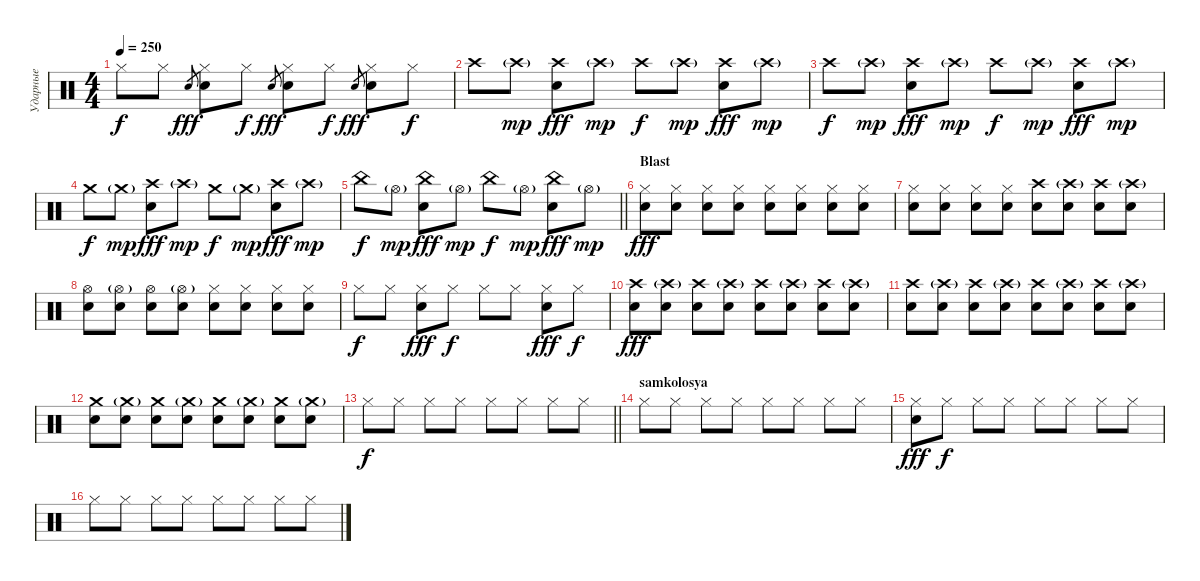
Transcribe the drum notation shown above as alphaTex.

\track ("Ударные" "Ударные") {instrument percussion}
\staff {score}
\articulation defaults
\ts (4 4)
\tempo 250
\clef neutral
\ks c "Hi-Hat (closed)".8{dy f} "Hi-Hat (closed)".8 "Snare (hit) 2".8{gr dy fff}
("Hi-Hat (closed)" "Snare (hit) 2").8 "Hi-Hat (closed)".8{dy f} "Snare (hit) 2".8{gr dy fff} ("Hi-Hat (closed)" "Snare (hit) 2").8 "Hi-Hat (closed)".8{dy f} "Snare (hit) 2".8{gr dy fff} ("Hi-Hat (closed)" "Snare (hit) 2").8 "Hi-Hat (closed)".8{dy f} |
"Crash high (hit)".8 "Crash high (hit)"{g}.8{dy mp} ("Crash high (hit)" "Snare (hit) 2").8{dy fff} "Crash high (hit)"{g}.8{dy mp} "Crash high (hit)".8{dy f} "Crash high (hit)"{g}.8{dy mp} ("Crash high (hit)" "Snare (hit) 2").8{dy fff} "Crash high (hit)"{g}.8{dy mp} |
"Crash high (hit)".8{dy f} "Crash high (hit)"{g}.8{dy mp} ("Crash high (hit)" "Snare (hit) 2").8{dy fff} "Crash high (hit)"{g}.8{dy mp} "Crash high (hit)".8{dy f} "Crash high (hit)"{g}.8{dy mp} ("Crash high (hit)" "Snare (hit) 2").8{dy fff} "Crash high (hit)"{g}.8{dy mp} |
"Crash medium (hit)".8{dy f} "Crash medium (hit)"{g}.8{dy mp} ("Crash high (hit)" "Snare (hit) 2").8{dy fff} "Crash high (hit)"{g}.8{dy mp} "Crash medium (hit)".8{dy f} "Crash medium (hit)"{g}.8{dy mp} ("Crash high (hit)" "Snare (hit) 2").8{dy fff} "Crash high (hit)"{g}.8{dy mp} |
\barLineRight lightlight "China (hit)".8{dy f} "Hi-Hat (open)"{g}.8{dy mp}
("China (hit)" "Snare (hit) 2").8{dy fff} "Hi-Hat (open)"{g}.8{dy mp} "China (hit)".8{dy f} "Hi-Hat (open)"{g}.8{dy mp} ("China (hit)" "Snare (hit) 2").8{dy fff} "Hi-Hat (open)"{g}.8{dy mp} |
\section ("" "Blast")
("Hi-Hat (closed)" "Snare (hit) 2").8{dy fff} ("Hi-Hat (closed)" "Snare (hit) 2").8 ("Hi-Hat (closed)" "Snare (hit) 2").8 ("Hi-Hat (closed)" "Snare (hit) 2").8 ("Hi-Hat (closed)" "Snare (hit) 2").8 ("Hi-Hat (closed)" "Snare (hit) 2").8 ("Hi-Hat (closed)" "Snare (hit) 2").8 ("Hi-Hat (closed)" "Snare (hit) 2").8 |
("Hi-Hat (closed)" "Snare (hit) 2").8 ("Hi-Hat (closed)" "Snare (hit) 2").8 ("Hi-Hat (closed)" "Snare (hit) 2").8 ("Hi-Hat (closed)" "Snare (hit) 2").8 ("Crash high (hit)" "Snare (hit) 2").8 ("Crash high (hit)"{g} "Snare (hit) 2").8 ("Crash high (hit)" "Snare (hit) 2").8 ("Crash high (hit)"{g} "Snare (hit) 2").8 |
("Hi-Hat (open)" "Snare (hit) 2").8 ("Hi-Hat (open)"{g} "Snare (hit) 2").8 ("Hi-Hat (open)" "Snare (hit) 2").8 ("Hi-Hat (open)"{g} "Snare (hit) 2").8 ("Hi-Hat (closed)" "Snare (hit) 2").8 ("Hi-Hat (closed)" "Snare (hit) 2").8 ("Hi-Hat (closed)" "Snare (hit) 2").8 ("Hi-Hat (closed)" "Snare (hit) 2").8 |
"Hi-Hat (closed)".8{dy f} "Hi-Hat (closed)".8 ("Hi-Hat (closed)" "Snare (hit) 2").8{dy fff} "Hi-Hat (closed)".8{dy f} "Hi-Hat (closed)".8 "Hi-Hat (closed)".8 ("Hi-Hat (closed)" "Snare (hit) 2").8{dy fff} "Hi-Hat (closed)".8{dy f} |
("Crash high (hit)" "Snare (hit) 2").8{dy fff} ("Crash high (hit)"{g} "Snare (hit) 2").8 ("Crash high (hit)" "Snare (hit) 2").8 ("Crash high (hit)"{g} "Snare (hit) 2").8 ("Crash high (hit)" "Snare (hit) 2").8 ("Crash high (hit)"{g} "Snare (hit) 2").8 ("Crash high (hit)" "Snare (hit) 2").8 ("Crash high (hit)"{g} "Snare (hit) 2").8 |
("Crash high (hit)" "Snare (hit) 2").8 ("Crash high (hit)"{g} "Snare (hit) 2").8 ("Crash high (hit)" "Snare (hit) 2").8 ("Crash high (hit)"{g} "Snare (hit) 2").8 ("Crash high (hit)" "Snare (hit) 2").8 ("Crash high (hit)"{g} "Snare (hit) 2").8 ("Crash high (hit)" "Snare (hit) 2").8 ("Crash high (hit)"{g} "Snare (hit) 2").8 |
("Crash medium (hit)" "Snare (hit) 2").8 ("Crash medium (hit)"{g} "Snare (hit) 2").8 ("Crash medium (hit)" "Snare (hit) 2").8 ("Crash medium (hit)"{g} "Snare (hit) 2").8 ("Crash medium (hit)" "Snare (hit) 2").8 ("Crash medium (hit)"{g} "Snare (hit) 2").8 ("Crash medium (hit)" "Snare (hit) 2").8 ("Crash medium (hit)"{g} "Snare (hit) 2").8 |
\barLineRight lightlight "Hi-Hat (closed)".8{dy f} "Hi-Hat (closed)".8 "Hi-Hat (closed)".8 "Hi-Hat (closed)".8 "Hi-Hat (closed)".8 "Hi-Hat (closed)".8 "Hi-Hat (closed)".8 "Hi-Hat (closed)".8
|
\section ("" "samkolosya")
"Hi-Hat (closed)".8 "Hi-Hat (closed)".8 "Hi-Hat (closed)".8 "Hi-Hat (closed)".8 "Hi-Hat (closed)".8 "Hi-Hat (closed)".8 "Hi-Hat (closed)".8 "Hi-Hat (closed)".8 |
("Hi-Hat (closed)" "Snare (hit) 2").8{dy fff} "Hi-Hat (closed)".8{dy f} "Hi-Hat (closed)".8 "Hi-Hat (closed)".8 "Hi-Hat (closed)".8 "Hi-Hat (closed)".8 "Hi-Hat (closed)".8 "Hi-Hat (closed)".8 |
"Hi-Hat (closed)".8 "Hi-Hat (closed)".8 "Hi-Hat (closed)".8 "Hi-Hat (closed)".8 "Hi-Hat (closed)".8 "Hi-Hat (closed)".8 "Hi-Hat (closed)".8 "Hi-Hat (closed)".8
